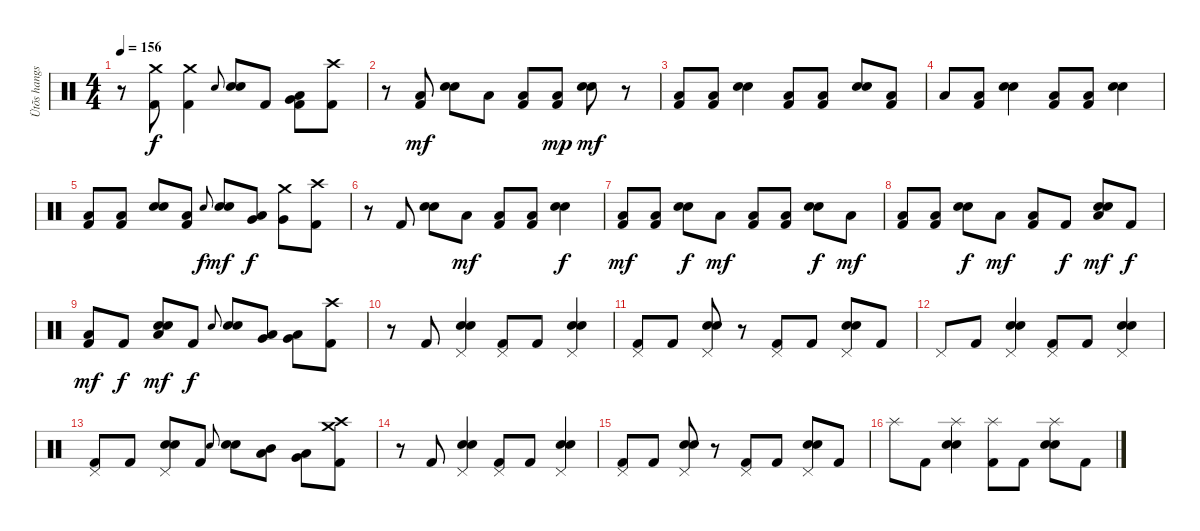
\track ("Ütõs hangszer" "Ütõs hangs") {instrument percussion}
\staff {score}
\articulation defaults
\ts (4 4)
\tempo 156
\clef neutral
\ks c
r.8{dy f} ("Crash medium (hit)" "Kick (hit) 2").8 ("Crash medium (hit)" "Kick (hit) 2").4 "Electric Snare (hit)".8{gr onbeat} ("Snare (hit) 2" "Electric Snare (hit)").8 "Kick (hit) 2".8 ("Low Tom (hit)" "Very Low Tom (hit)" "Kick (hit) 2").8 ("Crash high (hit)" "Kick (hit) 2").8 |
r.8 ("Low Floor Tom (hit)" "Kick (hit) 2").8{dy mf} ("Snare (hit) 2" "Electric Snare (hit)").8 "Low Floor Tom (hit)".8 ("Low Floor Tom (hit)" "Kick (hit) 2").8 ("Low Floor Tom (hit)" "Kick (hit) 2").8{dy mp} ("Snare (hit) 2" "Electric Snare (hit)").8{dy mf} r.8 |
("Low Floor Tom (hit)" "Kick (hit) 2").8 ("Low Floor Tom (hit)" "Kick (hit) 2").8 ("Snare (hit) 2" "Electric Snare (hit)").4 ("Low Floor Tom (hit)" "Kick (hit) 2").8 ("Low Floor Tom (hit)" "Kick (hit) 2").8 ("Snare (hit) 2" "Electric Snare (hit)").8 ("Low Floor Tom (hit)" "Kick (hit) 2").8 |
"Low Floor Tom (hit)".8 ("Low Floor Tom (hit)" "Kick (hit) 2").8 ("Snare (hit) 2" "Electric Snare (hit)").4 ("Low Floor Tom (hit)" "Kick (hit) 2").8 ("Low Floor Tom (hit)" "Kick (hit) 2").8 ("Snare (hit) 2" "Electric Snare (hit)").4 |
("Low Floor Tom (hit)" "Kick (hit) 2").8 ("Low Floor Tom (hit)" "Kick (hit) 2").8 ("Snare (hit) 2" "Electric Snare (hit)").8 ("Low Floor Tom (hit)" "Kick (hit) 2").8 "Electric Snare (hit)".8{gr onbeat dy f} ("Snare (hit) 2" "Electric Snare (hit)").8{dy mf} ("Very Low Tom (hit)" "Low Tom (hit)").8{dy f} ("Crash medium (hit)" "Very Low Tom (hit)").8 ("Crash high (hit)" "Kick (hit) 2").8 |
r.8 "Kick (hit) 2".8 ("Snare (hit) 2" "Electric Snare (hit)").8 "Low Floor Tom (hit)".8{dy mf} ("Low Floor Tom (hit)" "Kick (hit) 2").8 ("Low Floor Tom (hit)" "Kick (hit) 2").8 ("Snare (hit) 2" "Electric Snare (hit)").4{dy f} |
("Low Floor Tom (hit)" "Kick (hit) 2").8{dy mf} ("Low Floor Tom (hit)" "Kick (hit) 2").8 ("Snare (hit) 2" "Electric Snare (hit)").8{dy f} "Low Floor Tom (hit)".8{dy mf} ("Low Floor Tom (hit)" "Kick (hit) 2").8 ("Low Floor Tom (hit)" "Kick (hit) 2").8 ("Snare (hit) 2" "Electric Snare (hit)").8{dy f} "Low Floor Tom (hit)".8{dy mf} |
("Low Floor Tom (hit)" "Kick (hit) 2").8 ("Low Floor Tom (hit)" "Kick (hit) 2").8 ("Snare (hit) 2" "Electric Snare (hit)").8{dy f} "Low Floor Tom (hit)".8{dy mf} ("Low Floor Tom (hit)" "Kick (hit) 2").8 "Kick (hit) 2".8{dy f} ("Snare (hit) 2" "Electric Snare (hit)" "Low Floor Tom (hit)").8{dy mf} "Kick (hit) 2".8{dy f} |
("Low Floor Tom (hit)" "Kick (hit) 2").8{dy mf} "Kick (hit) 2".8{dy f} ("Snare (hit) 2" "Electric Snare (hit)" "Low Floor Tom (hit)").8{dy mf} "Kick (hit) 2".8{dy f} "Electric Snare (hit)".8{gr onbeat} ("Snare (hit) 2" "Electric Snare (hit)").8 ("Very Low Tom (hit)" "Low Tom (hit)").8 ("Very Low Tom (hit)" "Low Tom (hit)").8 ("Crash high (hit)" "Kick (hit) 2").8 |
r.8 "Kick (hit) 2".8 ("Pedal Hi-Hat (hit)" "Snare (hit) 2" "Electric Snare (hit)").4 ("Pedal Hi-Hat (hit)" "Kick (hit) 2").8 "Kick (hit) 2".8 ("Pedal Hi-Hat (hit)" "Snare (hit) 2" "Electric Snare (hit)").4 |
("Pedal Hi-Hat (hit)" "Kick (hit) 2").8 "Kick (hit) 2".8 ("Pedal Hi-Hat (hit)" "Snare (hit) 2" "Electric Snare (hit)").8 r.8 ("Pedal Hi-Hat (hit)" "Kick (hit) 2").8 "Kick (hit) 2".8 ("Pedal Hi-Hat (hit)" "Snare (hit) 2" "Electric Snare (hit)").8 "Kick (hit) 2".8 |
"Pedal Hi-Hat (hit)".8 "Kick (hit) 2".8 ("Pedal Hi-Hat (hit)" "Snare (hit) 2" "Electric Snare (hit)").4 ("Pedal Hi-Hat (hit)" "Kick (hit) 2").8 "Kick (hit) 2".8 ("Pedal Hi-Hat (hit)" "Snare (hit) 2" "Electric Snare (hit)").4 |
("Pedal Hi-Hat (hit)" "Kick (hit) 2").8 "Kick (hit) 2".8 ("Pedal Hi-Hat (hit)" "Snare (hit) 2" "Electric Snare (hit)").8 "Kick (hit) 2".8 "Electric Snare (hit)".8{gr onbeat} ("Snare (hit) 2" "Electric Snare (hit)").8 ("Mid Tom (hit)" "Low Tom (hit)").8 ("Low Tom (hit)" "Very Low Tom (hit)").8 ("Crash high (hit)" "Crash medium (hit)" "Kick (hit) 2").8 |
r.8 "Kick (hit) 2".8 ("Pedal Hi-Hat (hit)" "Snare (hit) 2" "Electric Snare (hit)").4 ("Pedal Hi-Hat (hit)" "Kick (hit) 2").8 "Kick (hit) 2".8 ("Pedal Hi-Hat (hit)" "Snare (hit) 2" "Electric Snare (hit)").4 |
("Pedal Hi-Hat (hit)" "Kick (hit) 2").8 "Kick (hit) 2".8 ("Pedal Hi-Hat (hit)" "Snare (hit) 2" "Electric Snare (hit)").8 r.8 ("Pedal Hi-Hat (hit)" "Kick (hit) 2").8 "Kick (hit) 2".8 ("Pedal Hi-Hat (hit)" "Snare (hit) 2" "Electric Snare (hit)").8 "Kick (hit) 2".8 |
"Splash (hit)".8 "Kick (hit) 2".8 ("Splash (hit)" "Snare (hit) 2" "Electric Snare (hit)").4 ("Splash (hit)" "Kick (hit) 2").8 "Kick (hit) 2".8 ("Splash (hit)" "Snare (hit) 2" "Electric Snare (hit)").8 "Kick (hit) 2".8
